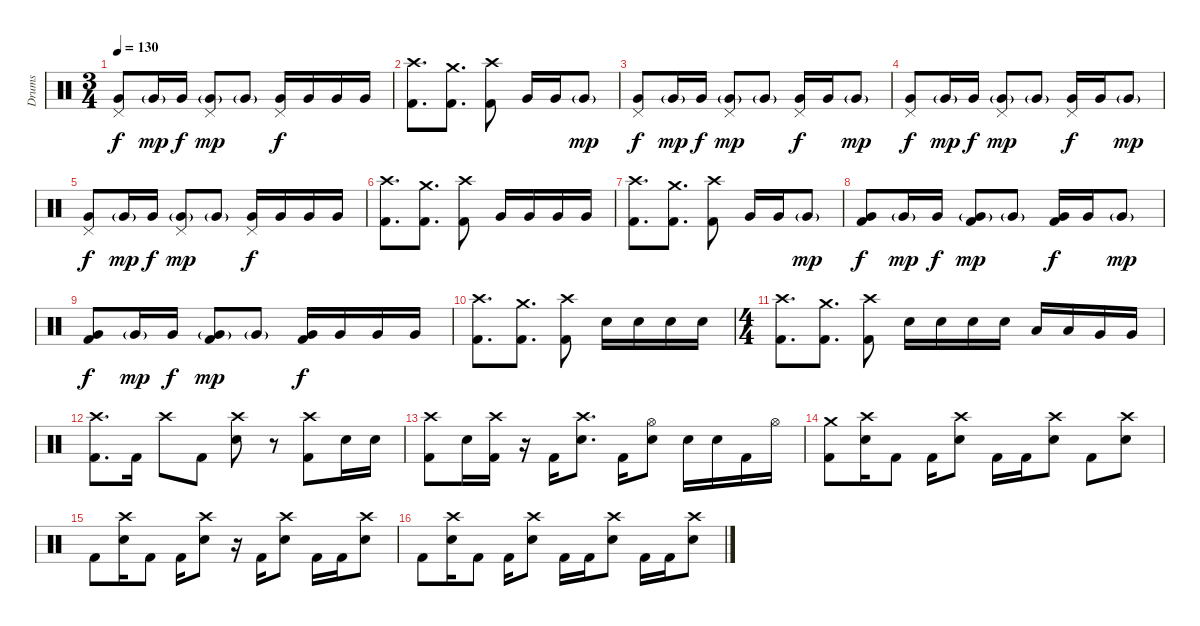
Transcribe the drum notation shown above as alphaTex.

\track ("Drums" "Drums") {instrument percussion}
\staff {score}
\articulation defaults
\ts (3 4)
\tempo 130
\clef neutral
\ks c
("Pedal Hi-Hat (hit)" "Very Low Tom (hit)").8{dy f} "Very Low Tom (hit)"{g}.16{dy mp} "Very Low Tom (hit)".16{dy f} ("Pedal Hi-Hat (hit)" "Very Low Tom (hit)"{g}).8{dy mp} "Very Low Tom (hit)"{g}.8 ("Pedal Hi-Hat (hit)" "Very Low Tom (hit)").16{dy f} "Very Low Tom (hit)".16 "Very Low Tom (hit)".16 "Very Low Tom (hit)".16 |
("Crash high (hit)" "Kick (hit) 2").8{d} ("Crash medium (hit)" "Kick (hit) 2").8{d} ("Crash high (hit)" "Kick (hit) 2").8 "Very Low Tom (hit)".16 "Very Low Tom (hit)".16 "Very Low Tom (hit)"{g}.8{dy mp} |
("Pedal Hi-Hat (hit)" "Very Low Tom (hit)").8{dy f} "Very Low Tom (hit)"{g}.16{dy mp} "Very Low Tom (hit)".16{dy f} ("Pedal Hi-Hat (hit)" "Very Low Tom (hit)"{g}).8{dy mp} "Very Low Tom (hit)"{g}.8 ("Pedal Hi-Hat (hit)" "Very Low Tom (hit)").16{dy f} "Very Low Tom (hit)".16 "Very Low Tom (hit)"{g}.8{dy mp} |
("Pedal Hi-Hat (hit)" "Very Low Tom (hit)").8{dy f} "Very Low Tom (hit)"{g}.16{dy mp} "Very Low Tom (hit)".16{dy f} ("Pedal Hi-Hat (hit)" "Very Low Tom (hit)"{g}).8{dy mp} "Very Low Tom (hit)"{g}.8 ("Pedal Hi-Hat (hit)" "Very Low Tom (hit)").16{dy f} "Very Low Tom (hit)".16 "Very Low Tom (hit)"{g}.8{dy mp} |
("Pedal Hi-Hat (hit)" "Very Low Tom (hit)").8{dy f} "Very Low Tom (hit)"{g}.16{dy mp} "Very Low Tom (hit)".16{dy f} ("Pedal Hi-Hat (hit)" "Very Low Tom (hit)"{g}).8{dy mp} "Very Low Tom (hit)"{g}.8 ("Pedal Hi-Hat (hit)" "Very Low Tom (hit)").16{dy f} "Very Low Tom (hit)".16 "Very Low Tom (hit)".16 "Very Low Tom (hit)".16 |
("Crash high (hit)" "Kick (hit) 2").8{d} ("Crash medium (hit)" "Kick (hit) 2").8{d} ("Crash high (hit)" "Kick (hit) 2").8 "Very Low Tom (hit)".16 "Very Low Tom (hit)".16 "Very Low Tom (hit)".16 "Very Low Tom (hit)".16 |
("Crash high (hit)" "Kick (hit) 2").8{d} ("Crash medium (hit)" "Kick (hit) 2").8{d} ("Crash high (hit)" "Kick (hit) 2").8 "Very Low Tom (hit)".16 "Very Low Tom (hit)".16 "Very Low Tom (hit)"{g}.8{dy mp} |
("Kick (hit) 2" "Very Low Tom (hit)").8{dy f} "Very Low Tom (hit)"{g}.16{dy mp} "Very Low Tom (hit)".16{dy f} ("Kick (hit) 2" "Very Low Tom (hit)"{g}).8{dy mp} "Very Low Tom (hit)"{g}.8 ("Kick (hit) 2" "Very Low Tom (hit)").16{dy f} "Very Low Tom (hit)".16 "Very Low Tom (hit)"{g}.8{dy mp} |
("Kick (hit) 2" "Very Low Tom (hit)").8{dy f} "Very Low Tom (hit)"{g}.16{dy mp} "Very Low Tom (hit)".16{dy f} ("Kick (hit) 2" "Very Low Tom (hit)"{g}).8{dy mp} "Very Low Tom (hit)"{g}.8 ("Kick (hit) 2" "Very Low Tom (hit)").16{dy f} "Very Low Tom (hit)".16 "Very Low Tom (hit)".16 "Very Low Tom (hit)".16 |
("Crash high (hit)" "Kick (hit) 2").8{d} ("Crash medium (hit)" "Kick (hit) 2").8{d} ("Crash high (hit)" "Kick (hit) 2").8 "Electric Snare (hit)".16 "Electric Snare (hit)".16 "Electric Snare (hit)".16 "Electric Snare (hit)".16 |
\ts (4 4)
("Crash high (hit)" "Kick (hit) 2").8{d} ("Crash medium (hit)" "Kick (hit) 2").8{d} ("Crash high (hit)" "Kick (hit) 2").8 "Electric Snare (hit)".16 "Electric Snare (hit)".16 "Electric Snare (hit)".16 "Electric Snare (hit)".16 "Low Tom (hit)".16 "Low Tom (hit)".16 "Very Low Tom (hit)".16 "Very Low Tom (hit)".16 |
("Crash high (hit)" "Kick (hit) 2").8{d} "Kick (hit) 2".16 "Crash high (hit)".8 "Kick (hit) 2".8 ("Crash high (hit)" "Electric Snare (hit)").8 r.8 ("Crash high (hit)" "Kick (hit) 2").8 "Electric Snare (hit)".16 "Electric Snare (hit)".16 |
("Crash high (hit)" "Kick (hit) 2").8 "Electric Snare (hit)".16 ("Crash high (hit)" "Kick (hit) 2").16 r.16 "Kick (hit) 2".16 ("Crash high (hit)" "Electric Snare (hit)").8{d} "Kick (hit) 2".16 ("Hi-Hat (open)" "Electric Snare (hit)").8 "Electric Snare (hit)".16 "Electric Snare (hit)".16 "Kick (hit) 2".16 "Hi-Hat (open)".16 |
("Crash medium (hit)" "Kick (hit) 2").8 ("Crash high (hit)" "Electric Snare (hit)").16 "Kick (hit) 2".8 "Kick (hit) 2".16 ("Crash high (hit)" "Electric Snare (hit)").8 "Kick (hit) 2".16 "Kick (hit) 2".16 ("Crash high (hit)" "Electric Snare (hit)").8 "Kick (hit) 2".8 ("Crash high (hit)" "Electric Snare (hit)").8 |
"Kick (hit) 2".8 ("Crash high (hit)" "Electric Snare (hit)").16 "Kick (hit) 2".8 "Kick (hit) 2".16 ("Crash high (hit)" "Electric Snare (hit)").8 r.16 "Kick (hit) 2".16 ("Crash high (hit)" "Electric Snare (hit)").8 "Kick (hit) 2".16 "Kick (hit) 2".16 ("Crash high (hit)" "Electric Snare (hit)").8 |
"Kick (hit) 2".8 ("Crash high (hit)" "Electric Snare (hit)").16 "Kick (hit) 2".8 "Kick (hit) 2".16 ("Crash high (hit)" "Electric Snare (hit)").8 "Kick (hit) 2".16 "Kick (hit) 2".16 ("Crash high (hit)" "Electric Snare (hit)").8 "Kick (hit) 2".16 "Kick (hit) 2".16 ("Crash high (hit)" "Electric Snare (hit)").8
